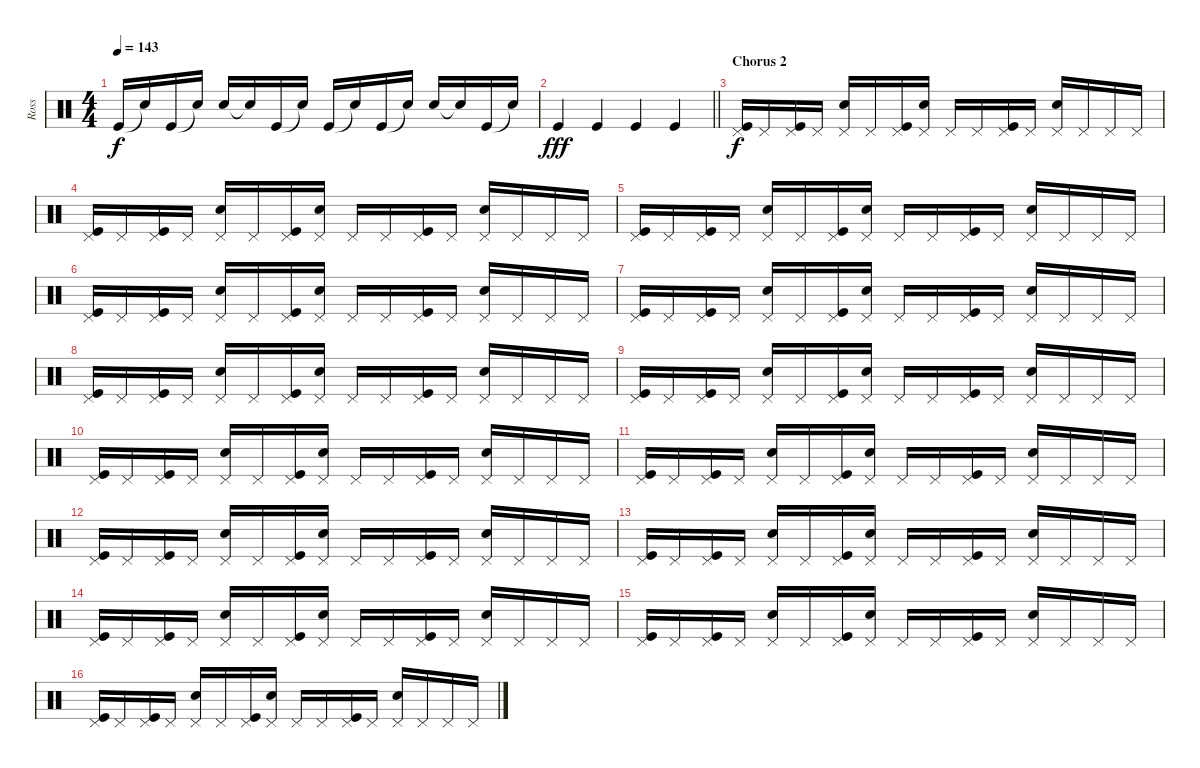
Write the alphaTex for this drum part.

\track ("Ross" "Ross") {instrument percussion}
\staff {score}
\articulation defaults
\ts (4 4)
\tempo 143
\clef neutral
\ks c "Kick (hit)".16{dy f} "Snare (hit)"{t}.16 "Kick (hit)".16 "Snare (hit)"{t}.16 "Snare (hit) 2".16 "Snare (hit)"{t}.16 "Kick (hit)".16 "Snare (hit)"{t}.16 "Kick (hit)".16 "Snare (hit)"{t}.16 "Kick (hit)".16 "Snare (hit)"{t}.16 "Snare (hit) 2".16 "Snare (hit)"{t}.16 "Kick (hit)".16 "Snare (hit)"{t}.16
|
\barLineRight lightlight "Kick (hit)".4{dy fff} "Kick (hit)".4 "Kick (hit)".4 "Kick (hit)".4
|
\section ("" "Chorus 2")
("Pedal Hi-Hat (hit)" "Kick (hit)").16{dy f} "Pedal Hi-Hat (hit)".16 ("Pedal Hi-Hat (hit)" "Kick (hit)").16 "Pedal Hi-Hat (hit)".16 ("Pedal Hi-Hat (hit)" "Snare (hit) 2").16 "Pedal Hi-Hat (hit)".16 ("Pedal Hi-Hat (hit)" "Kick (hit)").16 ("Pedal Hi-Hat (hit)" "Snare (hit) 2").16 "Pedal Hi-Hat (hit)".16 "Pedal Hi-Hat (hit)".16 ("Pedal Hi-Hat (hit)" "Kick (hit)").16 "Pedal Hi-Hat (hit)".16 ("Pedal Hi-Hat (hit)" "Snare (hit) 2").16 "Pedal Hi-Hat (hit)".16 "Pedal Hi-Hat (hit)".16 "Pedal Hi-Hat (hit)".16 |
("Pedal Hi-Hat (hit)" "Kick (hit)").16 "Pedal Hi-Hat (hit)".16 ("Pedal Hi-Hat (hit)" "Kick (hit)").16 "Pedal Hi-Hat (hit)".16 ("Pedal Hi-Hat (hit)" "Snare (hit) 2").16 "Pedal Hi-Hat (hit)".16 ("Pedal Hi-Hat (hit)" "Kick (hit)").16 ("Pedal Hi-Hat (hit)" "Snare (hit) 2").16 "Pedal Hi-Hat (hit)".16 "Pedal Hi-Hat (hit)".16 ("Pedal Hi-Hat (hit)" "Kick (hit)").16 "Pedal Hi-Hat (hit)".16 ("Pedal Hi-Hat (hit)" "Snare (hit) 2").16 "Pedal Hi-Hat (hit)".16 "Pedal Hi-Hat (hit)".16 "Pedal Hi-Hat (hit)".16 |
("Pedal Hi-Hat (hit)" "Kick (hit)").16 "Pedal Hi-Hat (hit)".16 ("Pedal Hi-Hat (hit)" "Kick (hit)").16 "Pedal Hi-Hat (hit)".16 ("Pedal Hi-Hat (hit)" "Snare (hit) 2").16 "Pedal Hi-Hat (hit)".16 ("Pedal Hi-Hat (hit)" "Kick (hit)").16 ("Pedal Hi-Hat (hit)" "Snare (hit) 2").16 "Pedal Hi-Hat (hit)".16 "Pedal Hi-Hat (hit)".16 ("Pedal Hi-Hat (hit)" "Kick (hit)").16 "Pedal Hi-Hat (hit)".16 ("Pedal Hi-Hat (hit)" "Snare (hit) 2").16 "Pedal Hi-Hat (hit)".16 "Pedal Hi-Hat (hit)".16 "Pedal Hi-Hat (hit)".16 |
("Pedal Hi-Hat (hit)" "Kick (hit)").16 "Pedal Hi-Hat (hit)".16 ("Pedal Hi-Hat (hit)" "Kick (hit)").16 "Pedal Hi-Hat (hit)".16 ("Pedal Hi-Hat (hit)" "Snare (hit) 2").16 "Pedal Hi-Hat (hit)".16 ("Pedal Hi-Hat (hit)" "Kick (hit)").16 ("Pedal Hi-Hat (hit)" "Snare (hit) 2").16 "Pedal Hi-Hat (hit)".16 "Pedal Hi-Hat (hit)".16 ("Pedal Hi-Hat (hit)" "Kick (hit)").16 "Pedal Hi-Hat (hit)".16 ("Pedal Hi-Hat (hit)" "Snare (hit) 2").16 "Pedal Hi-Hat (hit)".16 "Pedal Hi-Hat (hit)".16 "Pedal Hi-Hat (hit)".16 |
("Pedal Hi-Hat (hit)" "Kick (hit)").16 "Pedal Hi-Hat (hit)".16 ("Pedal Hi-Hat (hit)" "Kick (hit)").16 "Pedal Hi-Hat (hit)".16 ("Pedal Hi-Hat (hit)" "Snare (hit) 2").16 "Pedal Hi-Hat (hit)".16 ("Pedal Hi-Hat (hit)" "Kick (hit)").16 ("Pedal Hi-Hat (hit)" "Snare (hit) 2").16 "Pedal Hi-Hat (hit)".16 "Pedal Hi-Hat (hit)".16 ("Pedal Hi-Hat (hit)" "Kick (hit)").16 "Pedal Hi-Hat (hit)".16 ("Pedal Hi-Hat (hit)" "Snare (hit) 2").16 "Pedal Hi-Hat (hit)".16 "Pedal Hi-Hat (hit)".16 "Pedal Hi-Hat (hit)".16 |
("Pedal Hi-Hat (hit)" "Kick (hit)").16 "Pedal Hi-Hat (hit)".16 ("Pedal Hi-Hat (hit)" "Kick (hit)").16 "Pedal Hi-Hat (hit)".16 ("Pedal Hi-Hat (hit)" "Snare (hit) 2").16 "Pedal Hi-Hat (hit)".16 ("Pedal Hi-Hat (hit)" "Kick (hit)").16 ("Pedal Hi-Hat (hit)" "Snare (hit) 2").16 "Pedal Hi-Hat (hit)".16 "Pedal Hi-Hat (hit)".16 ("Pedal Hi-Hat (hit)" "Kick (hit)").16 "Pedal Hi-Hat (hit)".16 ("Pedal Hi-Hat (hit)" "Snare (hit) 2").16 "Pedal Hi-Hat (hit)".16 "Pedal Hi-Hat (hit)".16 "Pedal Hi-Hat (hit)".16 |
("Pedal Hi-Hat (hit)" "Kick (hit)").16 "Pedal Hi-Hat (hit)".16 ("Pedal Hi-Hat (hit)" "Kick (hit)").16 "Pedal Hi-Hat (hit)".16 ("Pedal Hi-Hat (hit)" "Snare (hit) 2").16 "Pedal Hi-Hat (hit)".16 ("Pedal Hi-Hat (hit)" "Kick (hit)").16 ("Pedal Hi-Hat (hit)" "Snare (hit) 2").16 "Pedal Hi-Hat (hit)".16 "Pedal Hi-Hat (hit)".16 ("Pedal Hi-Hat (hit)" "Kick (hit)").16 "Pedal Hi-Hat (hit)".16 ("Pedal Hi-Hat (hit)" "Snare (hit) 2").16 "Pedal Hi-Hat (hit)".16 "Pedal Hi-Hat (hit)".16 "Pedal Hi-Hat (hit)".16 |
("Pedal Hi-Hat (hit)" "Kick (hit)").16 "Pedal Hi-Hat (hit)".16 ("Pedal Hi-Hat (hit)" "Kick (hit)").16 "Pedal Hi-Hat (hit)".16 ("Pedal Hi-Hat (hit)" "Snare (hit) 2").16 "Pedal Hi-Hat (hit)".16 ("Pedal Hi-Hat (hit)" "Kick (hit)").16 ("Pedal Hi-Hat (hit)" "Snare (hit) 2").16 "Pedal Hi-Hat (hit)".16 "Pedal Hi-Hat (hit)".16 ("Pedal Hi-Hat (hit)" "Kick (hit)").16 "Pedal Hi-Hat (hit)".16 ("Pedal Hi-Hat (hit)" "Snare (hit) 2").16 "Pedal Hi-Hat (hit)".16 "Pedal Hi-Hat (hit)".16 "Pedal Hi-Hat (hit)".16 |
("Pedal Hi-Hat (hit)" "Kick (hit)").16 "Pedal Hi-Hat (hit)".16 ("Pedal Hi-Hat (hit)" "Kick (hit)").16 "Pedal Hi-Hat (hit)".16 ("Pedal Hi-Hat (hit)" "Snare (hit) 2").16 "Pedal Hi-Hat (hit)".16 ("Pedal Hi-Hat (hit)" "Kick (hit)").16 ("Pedal Hi-Hat (hit)" "Snare (hit) 2").16 "Pedal Hi-Hat (hit)".16 "Pedal Hi-Hat (hit)".16 ("Pedal Hi-Hat (hit)" "Kick (hit)").16 "Pedal Hi-Hat (hit)".16 ("Pedal Hi-Hat (hit)" "Snare (hit) 2").16 "Pedal Hi-Hat (hit)".16 "Pedal Hi-Hat (hit)".16 "Pedal Hi-Hat (hit)".16 |
("Pedal Hi-Hat (hit)" "Kick (hit)").16 "Pedal Hi-Hat (hit)".16 ("Pedal Hi-Hat (hit)" "Kick (hit)").16 "Pedal Hi-Hat (hit)".16 ("Pedal Hi-Hat (hit)" "Snare (hit) 2").16 "Pedal Hi-Hat (hit)".16 ("Pedal Hi-Hat (hit)" "Kick (hit)").16 ("Pedal Hi-Hat (hit)" "Snare (hit) 2").16 "Pedal Hi-Hat (hit)".16 "Pedal Hi-Hat (hit)".16 ("Pedal Hi-Hat (hit)" "Kick (hit)").16 "Pedal Hi-Hat (hit)".16 ("Pedal Hi-Hat (hit)" "Snare (hit) 2").16 "Pedal Hi-Hat (hit)".16 "Pedal Hi-Hat (hit)".16 "Pedal Hi-Hat (hit)".16 |
("Pedal Hi-Hat (hit)" "Kick (hit)").16 "Pedal Hi-Hat (hit)".16 ("Pedal Hi-Hat (hit)" "Kick (hit)").16 "Pedal Hi-Hat (hit)".16 ("Pedal Hi-Hat (hit)" "Snare (hit) 2").16 "Pedal Hi-Hat (hit)".16 ("Pedal Hi-Hat (hit)" "Kick (hit)").16 ("Pedal Hi-Hat (hit)" "Snare (hit) 2").16 "Pedal Hi-Hat (hit)".16 "Pedal Hi-Hat (hit)".16 ("Pedal Hi-Hat (hit)" "Kick (hit)").16 "Pedal Hi-Hat (hit)".16 ("Pedal Hi-Hat (hit)" "Snare (hit) 2").16 "Pedal Hi-Hat (hit)".16 "Pedal Hi-Hat (hit)".16 "Pedal Hi-Hat (hit)".16 |
("Pedal Hi-Hat (hit)" "Kick (hit)").16 "Pedal Hi-Hat (hit)".16 ("Pedal Hi-Hat (hit)" "Kick (hit)").16 "Pedal Hi-Hat (hit)".16 ("Pedal Hi-Hat (hit)" "Snare (hit) 2").16 "Pedal Hi-Hat (hit)".16 ("Pedal Hi-Hat (hit)" "Kick (hit)").16 ("Pedal Hi-Hat (hit)" "Snare (hit) 2").16 "Pedal Hi-Hat (hit)".16 "Pedal Hi-Hat (hit)".16 ("Pedal Hi-Hat (hit)" "Kick (hit)").16 "Pedal Hi-Hat (hit)".16 ("Pedal Hi-Hat (hit)" "Snare (hit) 2").16 "Pedal Hi-Hat (hit)".16 "Pedal Hi-Hat (hit)".16 "Pedal Hi-Hat (hit)".16 |
("Pedal Hi-Hat (hit)" "Kick (hit)").16 "Pedal Hi-Hat (hit)".16 ("Pedal Hi-Hat (hit)" "Kick (hit)").16 "Pedal Hi-Hat (hit)".16 ("Pedal Hi-Hat (hit)" "Snare (hit) 2").16 "Pedal Hi-Hat (hit)".16 ("Pedal Hi-Hat (hit)" "Kick (hit)").16 ("Pedal Hi-Hat (hit)" "Snare (hit) 2").16 "Pedal Hi-Hat (hit)".16 "Pedal Hi-Hat (hit)".16 ("Pedal Hi-Hat (hit)" "Kick (hit)").16 "Pedal Hi-Hat (hit)".16 ("Pedal Hi-Hat (hit)" "Snare (hit) 2").16 "Pedal Hi-Hat (hit)".16 "Pedal Hi-Hat (hit)".16 "Pedal Hi-Hat (hit)".16 |
("Pedal Hi-Hat (hit)" "Kick (hit)").16 "Pedal Hi-Hat (hit)".16 ("Pedal Hi-Hat (hit)" "Kick (hit)").16 "Pedal Hi-Hat (hit)".16 ("Pedal Hi-Hat (hit)" "Snare (hit) 2").16 "Pedal Hi-Hat (hit)".16 ("Pedal Hi-Hat (hit)" "Kick (hit)").16 ("Pedal Hi-Hat (hit)" "Snare (hit) 2").16 "Pedal Hi-Hat (hit)".16 "Pedal Hi-Hat (hit)".16 ("Pedal Hi-Hat (hit)" "Kick (hit)").16 "Pedal Hi-Hat (hit)".16 ("Pedal Hi-Hat (hit)" "Snare (hit) 2").16 "Pedal Hi-Hat (hit)".16 "Pedal Hi-Hat (hit)".16 "Pedal Hi-Hat (hit)".16
